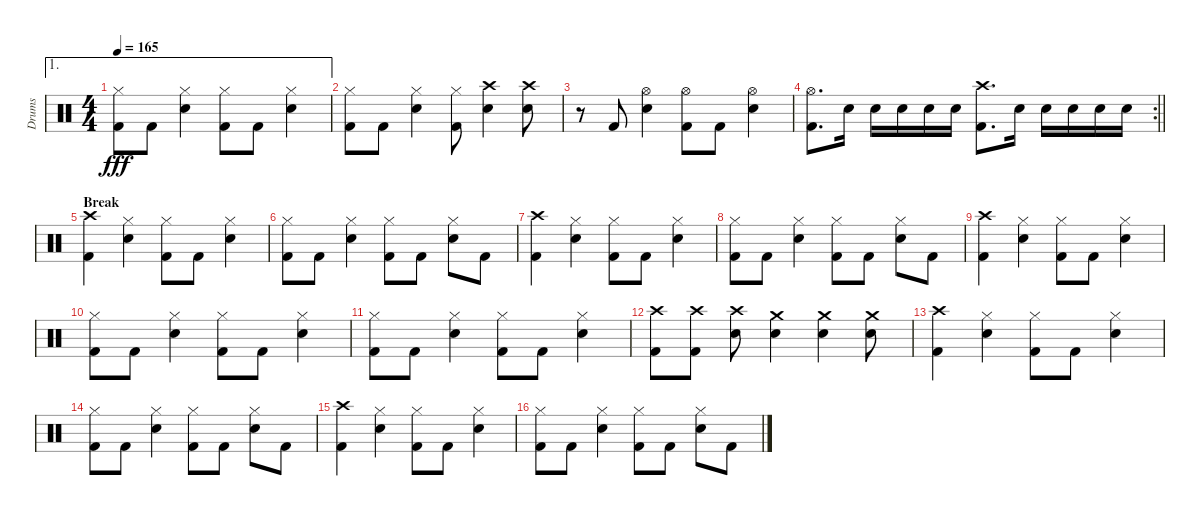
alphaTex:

\track ("Drums" "Drums") {instrument percussion}
\staff {score}
\articulation defaults
\ae 1
\ts (4 4)
\tempo 165
\clef neutral
\ks c
("Hi-Hat (closed)" "Kick (hit) 2").8{dy fff} "Kick (hit) 2".8 ("Hi-Hat (closed)" "Snare (hit) 2").4 ("Hi-Hat (closed)" "Kick (hit) 2").8 "Kick (hit) 2".8 ("Hi-Hat (closed)" "Snare (hit) 2").4 |
("Hi-Hat (closed)" "Kick (hit) 2").8 "Kick (hit) 2".8 ("Hi-Hat (closed)" "Snare (hit) 2").4 ("Hi-Hat (closed)" "Kick (hit) 2").8 ("Crash high (hit)" "Snare (hit) 2").4 ("Crash high (hit)" "Snare (hit) 2").8 |
r.8 "Kick (hit) 2".8 ("Hi-Hat (open)" "Snare (hit) 2").4 ("Hi-Hat (open)" "Kick (hit) 2").8 "Kick (hit) 2".8 ("Hi-Hat (open)" "Snare (hit) 2").4 |
\rc 2
\barLineRight lightlight
("Hi-Hat (open)" "Kick (hit) 2").8{d} "Snare (hit) 2".16 "Snare (hit) 2".16 "Snare (hit) 2".16 "Snare (hit) 2".16 "Snare (hit) 2".16 ("Crash high (hit)" "Kick (hit) 2").8{d} "Snare (hit) 2".16 "Snare (hit) 2".16 "Snare (hit) 2".16 "Snare (hit) 2".16 "Snare (hit) 2".16 |
\section ("" "Break")
("Crash high (hit)" "Kick (hit) 2").4 ("Hi-Hat (closed)" "Snare (hit) 2").4 ("Hi-Hat (closed)" "Kick (hit) 2").8 "Kick (hit) 2".8 ("Hi-Hat (closed)" "Snare (hit) 2").4 |
("Hi-Hat (closed)" "Kick (hit) 2").8 "Kick (hit) 2".8 ("Hi-Hat (closed)" "Snare (hit) 2").4 ("Hi-Hat (closed)" "Kick (hit) 2").8 "Kick (hit) 2".8 ("Hi-Hat (closed)" "Snare (hit) 2").8 "Kick (hit) 2".8 |
("Crash high (hit)" "Kick (hit) 2").4 ("Hi-Hat (closed)" "Snare (hit) 2").4 ("Hi-Hat (closed)" "Kick (hit) 2").8 "Kick (hit) 2".8 ("Hi-Hat (closed)" "Snare (hit) 2").4 |
("Hi-Hat (closed)" "Kick (hit) 2").8 "Kick (hit) 2".8 ("Hi-Hat (closed)" "Snare (hit) 2").4 ("Hi-Hat (closed)" "Kick (hit) 2").8 "Kick (hit) 2".8 ("Hi-Hat (closed)" "Snare (hit) 2").8 "Kick (hit) 2".8 |
("Crash high (hit)" "Kick (hit) 2").4 ("Hi-Hat (closed)" "Snare (hit) 2").4 ("Hi-Hat (closed)" "Kick (hit) 2").8 "Kick (hit) 2".8 ("Hi-Hat (closed)" "Snare (hit) 2").4 |
("Hi-Hat (closed)" "Kick (hit) 2").8 "Kick (hit) 2".8 ("Hi-Hat (closed)" "Snare (hit) 2").4 ("Hi-Hat (closed)" "Kick (hit) 2").8 "Kick (hit) 2".8 ("Hi-Hat (closed)" "Snare (hit) 2").4 |
("Hi-Hat (closed)" "Kick (hit) 2").8 "Kick (hit) 2".8 ("Hi-Hat (closed)" "Snare (hit) 2").4 ("Hi-Hat (closed)" "Kick (hit) 2").8 "Kick (hit) 2".8 ("Hi-Hat (closed)" "Snare (hit) 2").4 |
("Crash high (hit)" "Kick (hit) 2").8 ("Crash high (hit)" "Kick (hit) 2").8 ("Crash high (hit)" "Snare (hit) 2").8 ("Crash medium (hit)" "Snare (hit) 2").4 ("Crash medium (hit)" "Snare (hit) 2").4 ("Crash medium (hit)" "Snare (hit) 2").8 |
("Crash high (hit)" "Kick (hit) 2").4 ("Hi-Hat (closed)" "Snare (hit) 2").4 ("Hi-Hat (closed)" "Kick (hit) 2").8 "Kick (hit) 2".8 ("Hi-Hat (closed)" "Snare (hit) 2").4 |
("Hi-Hat (closed)" "Kick (hit) 2").8 "Kick (hit) 2".8 ("Hi-Hat (closed)" "Snare (hit) 2").4 ("Hi-Hat (closed)" "Kick (hit) 2").8 "Kick (hit) 2".8 ("Hi-Hat (closed)" "Snare (hit) 2").8 "Kick (hit) 2".8 |
("Crash high (hit)" "Kick (hit) 2").4 ("Hi-Hat (closed)" "Snare (hit) 2").4 ("Hi-Hat (closed)" "Kick (hit) 2").8 "Kick (hit) 2".8 ("Hi-Hat (closed)" "Snare (hit) 2").4 |
("Hi-Hat (closed)" "Kick (hit) 2").8 "Kick (hit) 2".8 ("Hi-Hat (closed)" "Snare (hit) 2").4 ("Hi-Hat (closed)" "Kick (hit) 2").8 "Kick (hit) 2".8 ("Hi-Hat (closed)" "Snare (hit) 2").8 "Kick (hit) 2".8
